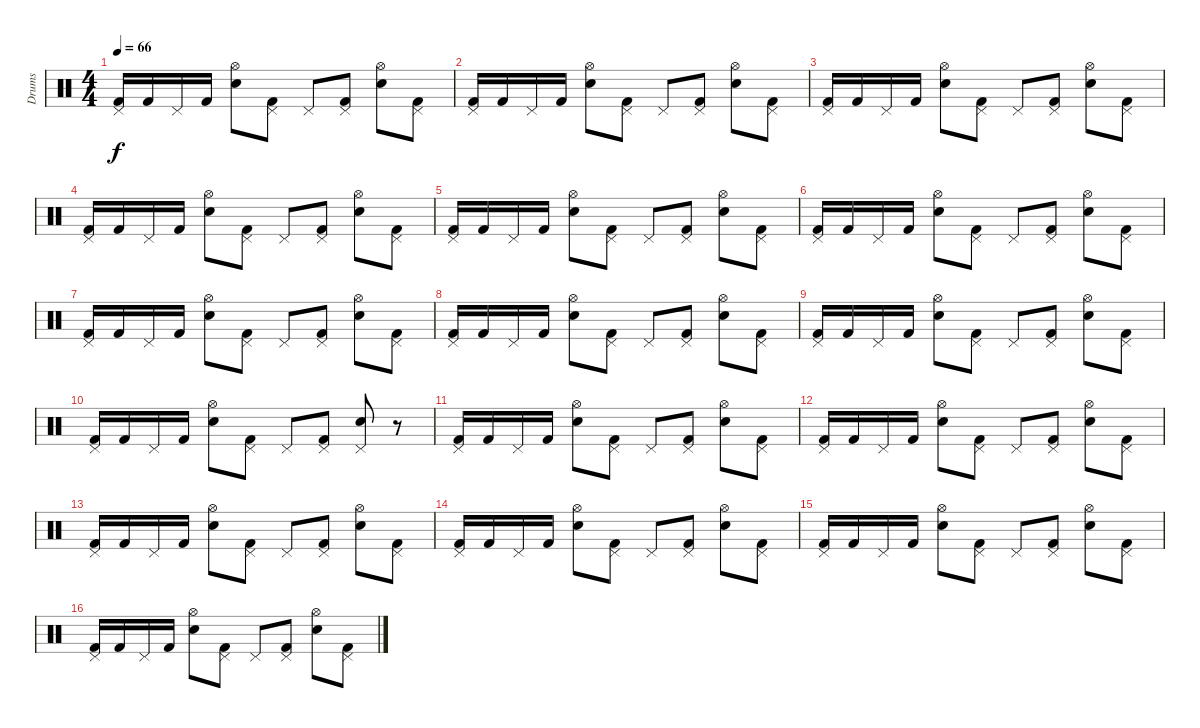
\track ("Drums" "Drums") {instrument percussion}
\staff {score}
\articulation defaults
\ts (4 4)
\tempo 66
\clef neutral
\ks c
("Pedal Hi-Hat (hit)" "Kick (hit) 2").16{dy f} "Kick (hit) 2".16 "Pedal Hi-Hat (hit)".16 "Kick (hit) 2".16 ("Hi-Hat (open)" "Snare (hit) 2").8 ("Pedal Hi-Hat (hit)" "Kick (hit) 2").8 "Pedal Hi-Hat (hit)".8 ("Pedal Hi-Hat (hit)" "Kick (hit) 2").8 ("Hi-Hat (open)" "Snare (hit) 2").8 ("Pedal Hi-Hat (hit)" "Kick (hit) 2").8 |
("Pedal Hi-Hat (hit)" "Kick (hit) 2").16 "Kick (hit) 2".16 "Pedal Hi-Hat (hit)".16 "Kick (hit) 2".16 ("Hi-Hat (open)" "Snare (hit) 2").8 ("Pedal Hi-Hat (hit)" "Kick (hit) 2").8 "Pedal Hi-Hat (hit)".8 ("Pedal Hi-Hat (hit)" "Kick (hit) 2").8 ("Hi-Hat (open)" "Snare (hit) 2").8 ("Pedal Hi-Hat (hit)" "Kick (hit) 2").8 |
("Pedal Hi-Hat (hit)" "Kick (hit) 2").16 "Kick (hit) 2".16 "Pedal Hi-Hat (hit)".16 "Kick (hit) 2".16 ("Hi-Hat (open)" "Snare (hit) 2").8 ("Pedal Hi-Hat (hit)" "Kick (hit) 2").8 "Pedal Hi-Hat (hit)".8 ("Pedal Hi-Hat (hit)" "Kick (hit) 2").8 ("Hi-Hat (open)" "Snare (hit) 2").8 ("Pedal Hi-Hat (hit)" "Kick (hit) 2").8 |
("Pedal Hi-Hat (hit)" "Kick (hit) 2").16 "Kick (hit) 2".16 "Pedal Hi-Hat (hit)".16 "Kick (hit) 2".16 ("Hi-Hat (open)" "Snare (hit) 2").8 ("Pedal Hi-Hat (hit)" "Kick (hit) 2").8 "Pedal Hi-Hat (hit)".8 ("Pedal Hi-Hat (hit)" "Kick (hit) 2").8 ("Hi-Hat (open)" "Snare (hit) 2").8 ("Pedal Hi-Hat (hit)" "Kick (hit) 2").8 |
("Pedal Hi-Hat (hit)" "Kick (hit) 2").16 "Kick (hit) 2".16 "Pedal Hi-Hat (hit)".16 "Kick (hit) 2".16 ("Hi-Hat (open)" "Snare (hit) 2").8 ("Pedal Hi-Hat (hit)" "Kick (hit) 2").8 "Pedal Hi-Hat (hit)".8 ("Pedal Hi-Hat (hit)" "Kick (hit) 2").8 ("Hi-Hat (open)" "Snare (hit) 2").8 ("Pedal Hi-Hat (hit)" "Kick (hit) 2").8 |
("Pedal Hi-Hat (hit)" "Kick (hit) 2").16 "Kick (hit) 2".16 "Pedal Hi-Hat (hit)".16 "Kick (hit) 2".16 ("Hi-Hat (open)" "Snare (hit) 2").8 ("Pedal Hi-Hat (hit)" "Kick (hit) 2").8 "Pedal Hi-Hat (hit)".8 ("Pedal Hi-Hat (hit)" "Kick (hit) 2").8 ("Hi-Hat (open)" "Snare (hit) 2").8 ("Pedal Hi-Hat (hit)" "Kick (hit) 2").8 |
("Pedal Hi-Hat (hit)" "Kick (hit) 2").16 "Kick (hit) 2".16 "Pedal Hi-Hat (hit)".16 "Kick (hit) 2".16 ("Hi-Hat (open)" "Snare (hit) 2").8 ("Pedal Hi-Hat (hit)" "Kick (hit) 2").8 "Pedal Hi-Hat (hit)".8 ("Pedal Hi-Hat (hit)" "Kick (hit) 2").8 ("Hi-Hat (open)" "Snare (hit) 2").8 ("Pedal Hi-Hat (hit)" "Kick (hit) 2").8 |
("Pedal Hi-Hat (hit)" "Kick (hit) 2").16 "Kick (hit) 2".16 "Pedal Hi-Hat (hit)".16 "Kick (hit) 2".16 ("Hi-Hat (open)" "Snare (hit) 2").8 ("Pedal Hi-Hat (hit)" "Kick (hit) 2").8 "Pedal Hi-Hat (hit)".8 ("Pedal Hi-Hat (hit)" "Kick (hit) 2").8 ("Hi-Hat (open)" "Snare (hit) 2").8 ("Pedal Hi-Hat (hit)" "Kick (hit) 2").8 |
("Pedal Hi-Hat (hit)" "Kick (hit) 2").16 "Kick (hit) 2".16 "Pedal Hi-Hat (hit)".16 "Kick (hit) 2".16 ("Hi-Hat (open)" "Snare (hit) 2").8 ("Pedal Hi-Hat (hit)" "Kick (hit) 2").8 "Pedal Hi-Hat (hit)".8 ("Pedal Hi-Hat (hit)" "Kick (hit) 2").8 ("Hi-Hat (open)" "Snare (hit) 2").8 ("Pedal Hi-Hat (hit)" "Kick (hit) 2").8 |
("Pedal Hi-Hat (hit)" "Kick (hit) 2").16 "Kick (hit) 2".16 "Pedal Hi-Hat (hit)".16 "Kick (hit) 2".16 ("Hi-Hat (open)" "Snare (hit) 2").8 ("Pedal Hi-Hat (hit)" "Kick (hit) 2").8 "Pedal Hi-Hat (hit)".8 ("Pedal Hi-Hat (hit)" "Kick (hit) 2").8 ("Pedal Hi-Hat (hit)" "Snare (hit) 2").8 r.8 |
("Pedal Hi-Hat (hit)" "Kick (hit) 2").16 "Kick (hit) 2".16 "Pedal Hi-Hat (hit)".16 "Kick (hit) 2".16 ("Hi-Hat (open)" "Snare (hit) 2").8 ("Pedal Hi-Hat (hit)" "Kick (hit) 2").8 "Pedal Hi-Hat (hit)".8 ("Pedal Hi-Hat (hit)" "Kick (hit) 2").8 ("Hi-Hat (open)" "Snare (hit) 2").8 ("Pedal Hi-Hat (hit)" "Kick (hit) 2").8 |
("Pedal Hi-Hat (hit)" "Kick (hit) 2").16 "Kick (hit) 2".16 "Pedal Hi-Hat (hit)".16 "Kick (hit) 2".16 ("Hi-Hat (open)" "Snare (hit) 2").8 ("Pedal Hi-Hat (hit)" "Kick (hit) 2").8 "Pedal Hi-Hat (hit)".8 ("Pedal Hi-Hat (hit)" "Kick (hit) 2").8 ("Hi-Hat (open)" "Snare (hit) 2").8 ("Pedal Hi-Hat (hit)" "Kick (hit) 2").8 |
("Pedal Hi-Hat (hit)" "Kick (hit) 2").16 "Kick (hit) 2".16 "Pedal Hi-Hat (hit)".16 "Kick (hit) 2".16 ("Hi-Hat (open)" "Snare (hit) 2").8 ("Pedal Hi-Hat (hit)" "Kick (hit) 2").8 "Pedal Hi-Hat (hit)".8 ("Pedal Hi-Hat (hit)" "Kick (hit) 2").8 ("Hi-Hat (open)" "Snare (hit) 2").8 ("Pedal Hi-Hat (hit)" "Kick (hit) 2").8 |
("Pedal Hi-Hat (hit)" "Kick (hit) 2").16 "Kick (hit) 2".16 "Pedal Hi-Hat (hit)".16 "Kick (hit) 2".16 ("Hi-Hat (open)" "Snare (hit) 2").8 ("Pedal Hi-Hat (hit)" "Kick (hit) 2").8 "Pedal Hi-Hat (hit)".8 ("Pedal Hi-Hat (hit)" "Kick (hit) 2").8 ("Hi-Hat (open)" "Snare (hit) 2").8 ("Pedal Hi-Hat (hit)" "Kick (hit) 2").8 |
("Pedal Hi-Hat (hit)" "Kick (hit) 2").16 "Kick (hit) 2".16 "Pedal Hi-Hat (hit)".16 "Kick (hit) 2".16 ("Hi-Hat (open)" "Snare (hit) 2").8 ("Pedal Hi-Hat (hit)" "Kick (hit) 2").8 "Pedal Hi-Hat (hit)".8 ("Pedal Hi-Hat (hit)" "Kick (hit) 2").8 ("Hi-Hat (open)" "Snare (hit) 2").8 ("Pedal Hi-Hat (hit)" "Kick (hit) 2").8 |
("Pedal Hi-Hat (hit)" "Kick (hit) 2").16 "Kick (hit) 2".16 "Pedal Hi-Hat (hit)".16 "Kick (hit) 2".16 ("Hi-Hat (open)" "Snare (hit) 2").8 ("Pedal Hi-Hat (hit)" "Kick (hit) 2").8 "Pedal Hi-Hat (hit)".8 ("Pedal Hi-Hat (hit)" "Kick (hit) 2").8 ("Hi-Hat (open)" "Snare (hit) 2").8 ("Pedal Hi-Hat (hit)" "Kick (hit) 2").8
